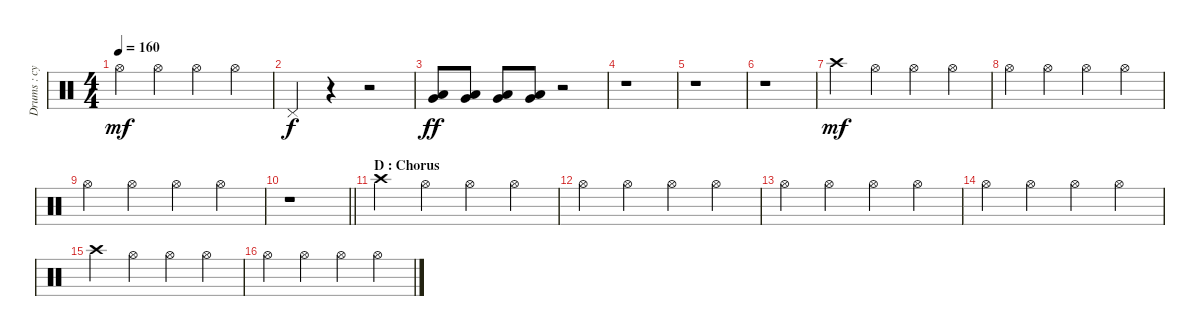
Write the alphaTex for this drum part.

\track ("Drums : cymbals" "Drums : cy") {instrument percussion}
\staff {score}
\articulation defaults
\ts (4 4)
\tempo 160
\clef neutral
\ks c "Hi-Hat (open)".4{dy mf} "Hi-Hat (open)".4 "Hi-Hat (open)".4 "Hi-Hat (open)".4
|
"Pedal Hi-Hat (hit)".4{dy f} r.4 r.2 |
("Low Tom (hit)" "Very Low Tom (hit)").8{dy ff} ("Low Tom (hit)" "Very Low Tom (hit)").8 ("Low Tom (hit)" "Very Low Tom (hit)").8 ("Low Tom (hit)" "Very Low Tom (hit)").8 r.2 |
r.1 |
r.1 |
r.1 |
"Crash high (hit)".4{dy mf} "Hi-Hat (open)".4 "Hi-Hat (open)".4 "Hi-Hat (open)".4 |
"Hi-Hat (open)".4 "Hi-Hat (open)".4 "Hi-Hat (open)".4 "Hi-Hat (open)".4 |
"Hi-Hat (open)".4 "Hi-Hat (open)".4 "Hi-Hat (open)".4 "Hi-Hat (open)".4 |
\barLineRight lightlight
r.1 |
\section ("" "D : Chorus")
"Crash high (hit)".4 "Hi-Hat (open)".4 "Hi-Hat (open)".4 "Hi-Hat (open)".4 |
"Hi-Hat (open)".4 "Hi-Hat (open)".4 "Hi-Hat (open)".4 "Hi-Hat (open)".4 |
"Hi-Hat (open)".4 "Hi-Hat (open)".4 "Hi-Hat (open)".4 "Hi-Hat (open)".4 |
"Hi-Hat (open)".4 "Hi-Hat (open)".4 "Hi-Hat (open)".4 "Hi-Hat (open)".4 |
"Crash high (hit)".4 "Hi-Hat (open)".4 "Hi-Hat (open)".4 "Hi-Hat (open)".4 |
"Hi-Hat (open)".4 "Hi-Hat (open)".4 "Hi-Hat (open)".4 "Hi-Hat (open)".4
